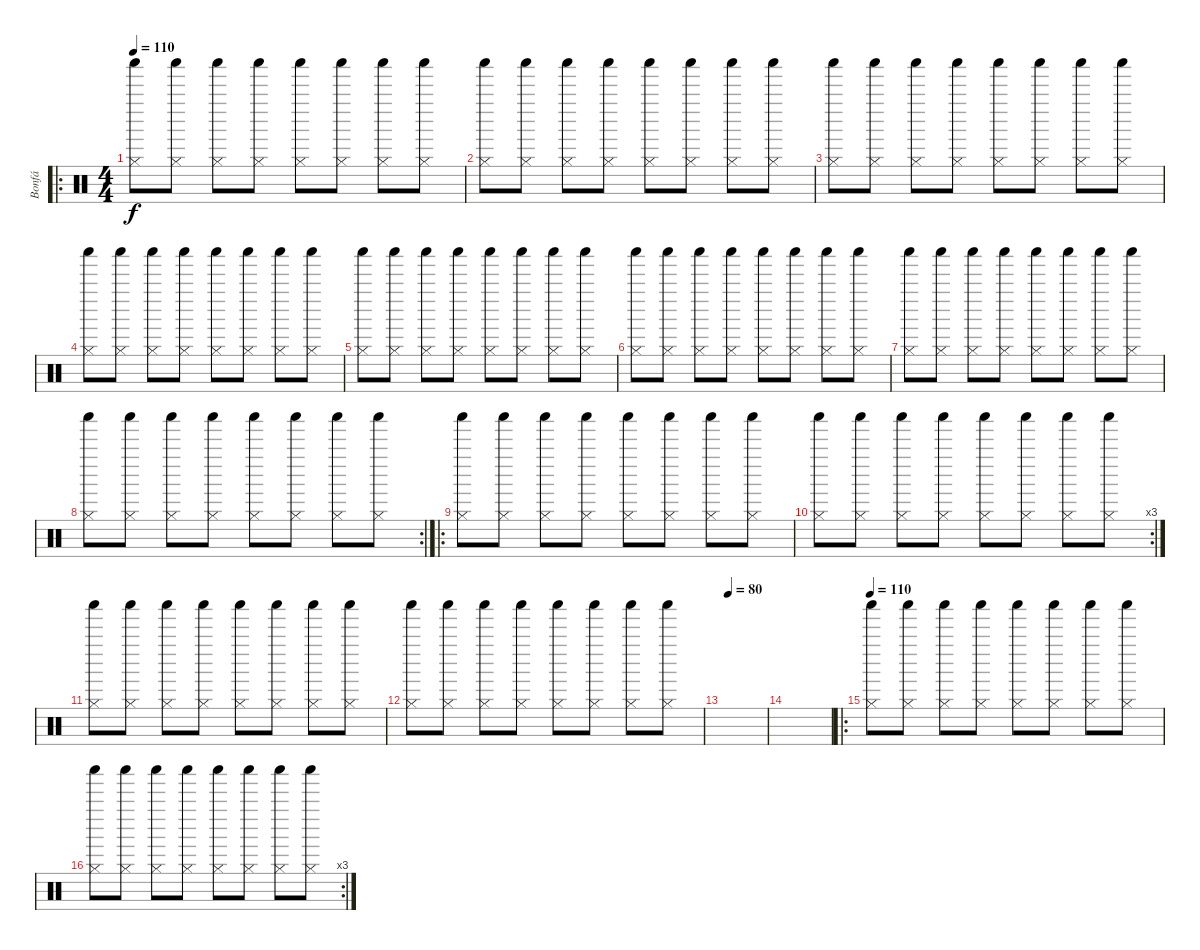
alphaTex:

\track ("Bonfá" "Bonfá") {instrument percussion}
\staff {score}
\articulation defaults
\ro
\ts (4 4)
\tempo 110
\clef neutral
\ks c
("Shaker (hit)" "Hi-Hat (closed)").8{dy f} ("Shaker (hit)" "Hi-Hat (closed)").8 ("Shaker (hit)" "Hi-Hat (closed)").8 ("Shaker (hit)" "Hi-Hat (closed)").8 ("Shaker (hit)" "Hi-Hat (closed)").8 ("Shaker (hit)" "Hi-Hat (closed)").8 ("Shaker (hit)" "Hi-Hat (closed)").8 ("Shaker (hit)" "Hi-Hat (closed)").8 |
("Shaker (hit)" "Hi-Hat (closed)").8 ("Shaker (hit)" "Hi-Hat (closed)").8 ("Shaker (hit)" "Hi-Hat (closed)").8 ("Shaker (hit)" "Hi-Hat (closed)").8 ("Shaker (hit)" "Hi-Hat (closed)").8 ("Shaker (hit)" "Hi-Hat (closed)").8 ("Shaker (hit)" "Hi-Hat (closed)").8 ("Shaker (hit)" "Hi-Hat (closed)").8 |
("Shaker (hit)" "Hi-Hat (closed)").8 ("Shaker (hit)" "Hi-Hat (closed)").8 ("Shaker (hit)" "Hi-Hat (closed)").8 ("Shaker (hit)" "Hi-Hat (closed)").8 ("Shaker (hit)" "Hi-Hat (closed)").8 ("Shaker (hit)" "Hi-Hat (closed)").8 ("Shaker (hit)" "Hi-Hat (closed)").8 ("Shaker (hit)" "Hi-Hat (closed)").8 |
("Shaker (hit)" "Hi-Hat (closed)").8 ("Shaker (hit)" "Hi-Hat (closed)").8 ("Shaker (hit)" "Hi-Hat (closed)").8 ("Shaker (hit)" "Hi-Hat (closed)").8 ("Shaker (hit)" "Hi-Hat (closed)").8 ("Shaker (hit)" "Hi-Hat (closed)").8 ("Shaker (hit)" "Hi-Hat (closed)").8 ("Shaker (hit)" "Hi-Hat (closed)").8 |
("Shaker (hit)" "Hi-Hat (closed)").8 ("Shaker (hit)" "Hi-Hat (closed)").8 ("Shaker (hit)" "Hi-Hat (closed)").8 ("Shaker (hit)" "Hi-Hat (closed)").8 ("Shaker (hit)" "Hi-Hat (closed)").8 ("Shaker (hit)" "Hi-Hat (closed)").8 ("Shaker (hit)" "Hi-Hat (closed)").8 ("Shaker (hit)" "Hi-Hat (closed)").8 |
("Shaker (hit)" "Hi-Hat (closed)").8 ("Shaker (hit)" "Hi-Hat (closed)").8 ("Shaker (hit)" "Hi-Hat (closed)").8 ("Shaker (hit)" "Hi-Hat (closed)").8 ("Shaker (hit)" "Hi-Hat (closed)").8 ("Shaker (hit)" "Hi-Hat (closed)").8 ("Shaker (hit)" "Hi-Hat (closed)").8 ("Shaker (hit)" "Hi-Hat (closed)").8 |
("Shaker (hit)" "Hi-Hat (closed)").8 ("Shaker (hit)" "Hi-Hat (closed)").8 ("Shaker (hit)" "Hi-Hat (closed)").8 ("Shaker (hit)" "Hi-Hat (closed)").8 ("Shaker (hit)" "Hi-Hat (closed)").8 ("Shaker (hit)" "Hi-Hat (closed)").8 ("Shaker (hit)" "Hi-Hat (closed)").8 ("Shaker (hit)" "Hi-Hat (closed)").8 |
\rc 2
("Shaker (hit)" "Hi-Hat (closed)").8 ("Shaker (hit)" "Hi-Hat (closed)").8 ("Shaker (hit)" "Hi-Hat (closed)").8 ("Shaker (hit)" "Hi-Hat (closed)").8 ("Shaker (hit)" "Hi-Hat (closed)").8 ("Shaker (hit)" "Hi-Hat (closed)").8 ("Shaker (hit)" "Hi-Hat (closed)").8 ("Shaker (hit)" "Hi-Hat (closed)").8 |
\ro
("Shaker (hit)" "Hi-Hat (closed)").8 ("Shaker (hit)" "Hi-Hat (closed)").8 ("Shaker (hit)" "Hi-Hat (closed)").8 ("Shaker (hit)" "Hi-Hat (closed)").8 ("Shaker (hit)" "Hi-Hat (closed)").8 ("Shaker (hit)" "Hi-Hat (closed)").8 ("Shaker (hit)" "Hi-Hat (closed)").8 ("Shaker (hit)" "Hi-Hat (closed)").8 |
\rc 3
("Shaker (hit)" "Hi-Hat (closed)").8 ("Shaker (hit)" "Hi-Hat (closed)").8 ("Shaker (hit)" "Hi-Hat (closed)").8 ("Shaker (hit)" "Hi-Hat (closed)").8 ("Shaker (hit)" "Hi-Hat (closed)").8 ("Shaker (hit)" "Hi-Hat (closed)").8 ("Shaker (hit)" "Hi-Hat (closed)").8 ("Shaker (hit)" "Hi-Hat (closed)").8 |
("Shaker (hit)" "Hi-Hat (closed)").8 ("Shaker (hit)" "Hi-Hat (closed)").8 ("Shaker (hit)" "Hi-Hat (closed)").8 ("Shaker (hit)" "Hi-Hat (closed)").8 ("Shaker (hit)" "Hi-Hat (closed)").8 ("Shaker (hit)" "Hi-Hat (closed)").8 ("Shaker (hit)" "Hi-Hat (closed)").8 ("Shaker (hit)" "Hi-Hat (closed)").8 |
("Shaker (hit)" "Hi-Hat (closed)").8 ("Shaker (hit)" "Hi-Hat (closed)").8 ("Shaker (hit)" "Hi-Hat (closed)").8 ("Shaker (hit)" "Hi-Hat (closed)").8 ("Shaker (hit)" "Hi-Hat (closed)").8 ("Shaker (hit)" "Hi-Hat (closed)").8 ("Shaker (hit)" "Hi-Hat (closed)").8 ("Shaker (hit)" "Hi-Hat (closed)").8 |
\tempo (80 0.125)
|
|
\ro
\tempo 110
("Shaker (hit)" "Hi-Hat (closed)").8 ("Shaker (hit)" "Hi-Hat (closed)").8 ("Shaker (hit)" "Hi-Hat (closed)").8 ("Shaker (hit)" "Hi-Hat (closed)").8 ("Shaker (hit)" "Hi-Hat (closed)").8 ("Shaker (hit)" "Hi-Hat (closed)").8 ("Shaker (hit)" "Hi-Hat (closed)").8 ("Shaker (hit)" "Hi-Hat (closed)").8 |
\rc 3
("Shaker (hit)" "Hi-Hat (closed)").8 ("Shaker (hit)" "Hi-Hat (closed)").8 ("Shaker (hit)" "Hi-Hat (closed)").8 ("Shaker (hit)" "Hi-Hat (closed)").8 ("Shaker (hit)" "Hi-Hat (closed)").8 ("Shaker (hit)" "Hi-Hat (closed)").8 ("Shaker (hit)" "Hi-Hat (closed)").8 ("Shaker (hit)" "Hi-Hat (closed)").8
